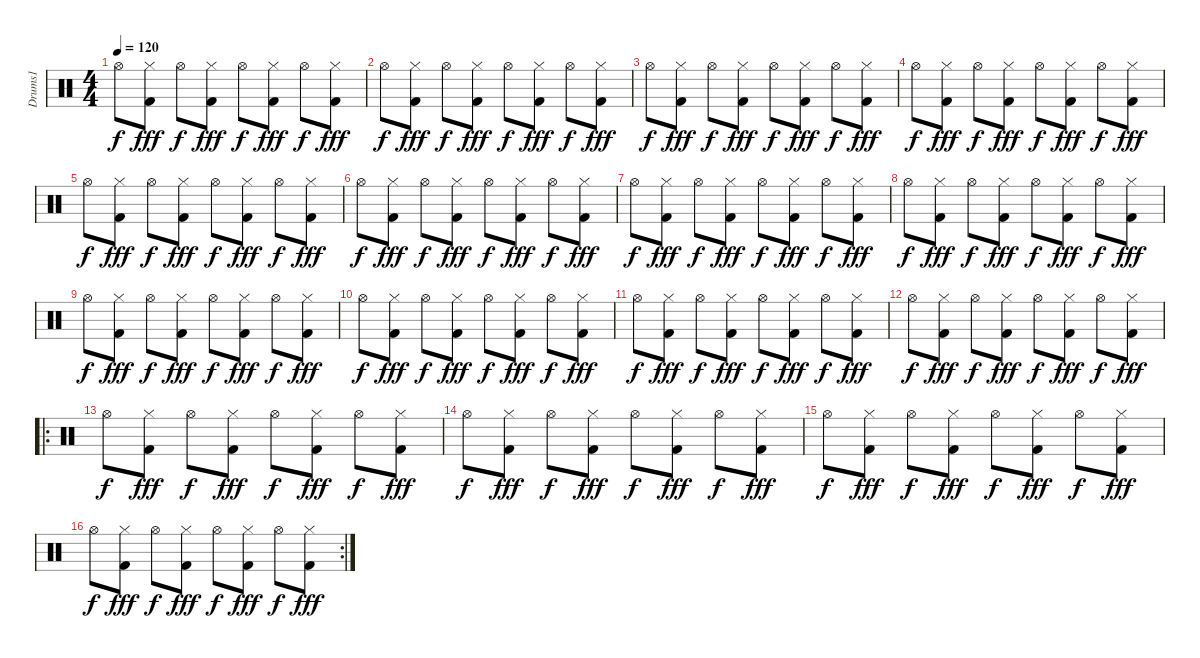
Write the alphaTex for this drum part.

\track ("Drums1" "Drums1") {instrument percussion}
\staff {score}
\articulation defaults
\ts (4 4)
\tempo 120
\clef neutral
\ks c "Hi-Hat (open)".8{dy f}
("Kick (hit) 2" "Hi-Hat (closed)").8{dy fff} "Hi-Hat (open)".8{dy f} ("Hi-Hat (closed)" "Kick (hit) 2").8{dy fff} "Hi-Hat (open)".8{dy f} ("Kick (hit) 2" "Hi-Hat (closed)").8{dy fff} "Hi-Hat (open)".8{dy f} ("Kick (hit) 2" "Hi-Hat (closed)").8{dy fff} |
"Hi-Hat (open)".8{dy f} ("Kick (hit) 2" "Hi-Hat (closed)").8{dy fff} "Hi-Hat (open)".8{dy f} ("Hi-Hat (closed)" "Kick (hit) 2").8{dy fff} "Hi-Hat (open)".8{dy f} ("Kick (hit) 2" "Hi-Hat (closed)").8{dy fff} "Hi-Hat (open)".8{dy f} ("Kick (hit) 2" "Hi-Hat (closed)").8{dy fff} |
"Hi-Hat (open)".8{dy f} ("Kick (hit) 2" "Hi-Hat (closed)").8{dy fff} "Hi-Hat (open)".8{dy f} ("Hi-Hat (closed)" "Kick (hit) 2").8{dy fff} "Hi-Hat (open)".8{dy f} ("Kick (hit) 2" "Hi-Hat (closed)").8{dy fff} "Hi-Hat (open)".8{dy f} ("Kick (hit) 2" "Hi-Hat (closed)").8{dy fff} |
"Hi-Hat (open)".8{dy f} ("Kick (hit) 2" "Hi-Hat (closed)").8{dy fff} "Hi-Hat (open)".8{dy f} ("Hi-Hat (closed)" "Kick (hit) 2").8{dy fff} "Hi-Hat (open)".8{dy f} ("Kick (hit) 2" "Hi-Hat (closed)").8{dy fff} "Hi-Hat (open)".8{dy f} ("Kick (hit) 2" "Hi-Hat (closed)").8{dy fff} |
"Hi-Hat (open)".8{dy f} ("Kick (hit) 2" "Hi-Hat (closed)").8{dy fff} "Hi-Hat (open)".8{dy f} ("Hi-Hat (closed)" "Kick (hit) 2").8{dy fff} "Hi-Hat (open)".8{dy f} ("Kick (hit) 2" "Hi-Hat (closed)").8{dy fff} "Hi-Hat (open)".8{dy f} ("Kick (hit) 2" "Hi-Hat (closed)").8{dy fff} |
"Hi-Hat (open)".8{dy f} ("Kick (hit) 2" "Hi-Hat (closed)").8{dy fff} "Hi-Hat (open)".8{dy f} ("Hi-Hat (closed)" "Kick (hit) 2").8{dy fff} "Hi-Hat (open)".8{dy f} ("Kick (hit) 2" "Hi-Hat (closed)").8{dy fff} "Hi-Hat (open)".8{dy f} ("Kick (hit) 2" "Hi-Hat (closed)").8{dy fff} |
"Hi-Hat (open)".8{dy f} ("Kick (hit) 2" "Hi-Hat (closed)").8{dy fff} "Hi-Hat (open)".8{dy f} ("Hi-Hat (closed)" "Kick (hit) 2").8{dy fff} "Hi-Hat (open)".8{dy f} ("Kick (hit) 2" "Hi-Hat (closed)").8{dy fff} "Hi-Hat (open)".8{dy f} ("Kick (hit) 2" "Hi-Hat (closed)").8{dy fff} |
"Hi-Hat (open)".8{dy f} ("Kick (hit) 2" "Hi-Hat (closed)").8{dy fff} "Hi-Hat (open)".8{dy f} ("Hi-Hat (closed)" "Kick (hit) 2").8{dy fff} "Hi-Hat (open)".8{dy f} ("Kick (hit) 2" "Hi-Hat (closed)").8{dy fff} "Hi-Hat (open)".8{dy f} ("Kick (hit) 2" "Hi-Hat (closed)").8{dy fff} |
"Hi-Hat (open)".8{dy f} ("Kick (hit) 2" "Hi-Hat (closed)").8{dy fff} "Hi-Hat (open)".8{dy f} ("Hi-Hat (closed)" "Kick (hit) 2").8{dy fff} "Hi-Hat (open)".8{dy f} ("Kick (hit) 2" "Hi-Hat (closed)").8{dy fff} "Hi-Hat (open)".8{dy f} ("Kick (hit) 2" "Hi-Hat (closed)").8{dy fff} |
"Hi-Hat (open)".8{dy f} ("Kick (hit) 2" "Hi-Hat (closed)").8{dy fff} "Hi-Hat (open)".8{dy f} ("Hi-Hat (closed)" "Kick (hit) 2").8{dy fff} "Hi-Hat (open)".8{dy f} ("Kick (hit) 2" "Hi-Hat (closed)").8{dy fff} "Hi-Hat (open)".8{dy f} ("Kick (hit) 2" "Hi-Hat (closed)").8{dy fff} |
"Hi-Hat (open)".8{dy f} ("Kick (hit) 2" "Hi-Hat (closed)").8{dy fff} "Hi-Hat (open)".8{dy f} ("Hi-Hat (closed)" "Kick (hit) 2").8{dy fff} "Hi-Hat (open)".8{dy f} ("Kick (hit) 2" "Hi-Hat (closed)").8{dy fff} "Hi-Hat (open)".8{dy f} ("Kick (hit) 2" "Hi-Hat (closed)").8{dy fff} |
"Hi-Hat (open)".8{dy f} ("Kick (hit) 2" "Hi-Hat (closed)").8{dy fff} "Hi-Hat (open)".8{dy f} ("Hi-Hat (closed)" "Kick (hit) 2").8{dy fff} "Hi-Hat (open)".8{dy f} ("Kick (hit) 2" "Hi-Hat (closed)").8{dy fff} "Hi-Hat (open)".8{dy f} ("Kick (hit) 2" "Hi-Hat (closed)").8{dy fff} |
\ro "Hi-Hat (open)".8{dy f}
("Kick (hit) 2" "Hi-Hat (closed)").8{dy fff} "Hi-Hat (open)".8{dy f} ("Hi-Hat (closed)" "Kick (hit) 2").8{dy fff} "Hi-Hat (open)".8{dy f} ("Kick (hit) 2" "Hi-Hat (closed)").8{dy fff} "Hi-Hat (open)".8{dy f} ("Kick (hit) 2" "Hi-Hat (closed)").8{dy fff} |
"Hi-Hat (open)".8{dy f} ("Kick (hit) 2" "Hi-Hat (closed)").8{dy fff} "Hi-Hat (open)".8{dy f} ("Hi-Hat (closed)" "Kick (hit) 2").8{dy fff} "Hi-Hat (open)".8{dy f} ("Kick (hit) 2" "Hi-Hat (closed)").8{dy fff} "Hi-Hat (open)".8{dy f} ("Kick (hit) 2" "Hi-Hat (closed)").8{dy fff} |
"Hi-Hat (open)".8{dy f} ("Kick (hit) 2" "Hi-Hat (closed)").8{dy fff} "Hi-Hat (open)".8{dy f} ("Hi-Hat (closed)" "Kick (hit) 2").8{dy fff} "Hi-Hat (open)".8{dy f} ("Kick (hit) 2" "Hi-Hat (closed)").8{dy fff} "Hi-Hat (open)".8{dy f} ("Kick (hit) 2" "Hi-Hat (closed)").8{dy fff} |
\rc 2 "Hi-Hat (open)".8{dy f}
("Kick (hit) 2" "Hi-Hat (closed)").8{dy fff} "Hi-Hat (open)".8{dy f} ("Hi-Hat (closed)" "Kick (hit) 2").8{dy fff} "Hi-Hat (open)".8{dy f} ("Kick (hit) 2" "Hi-Hat (closed)").8{dy fff} "Hi-Hat (open)".8{dy f} ("Kick (hit) 2" "Hi-Hat (closed)").8{dy fff}
